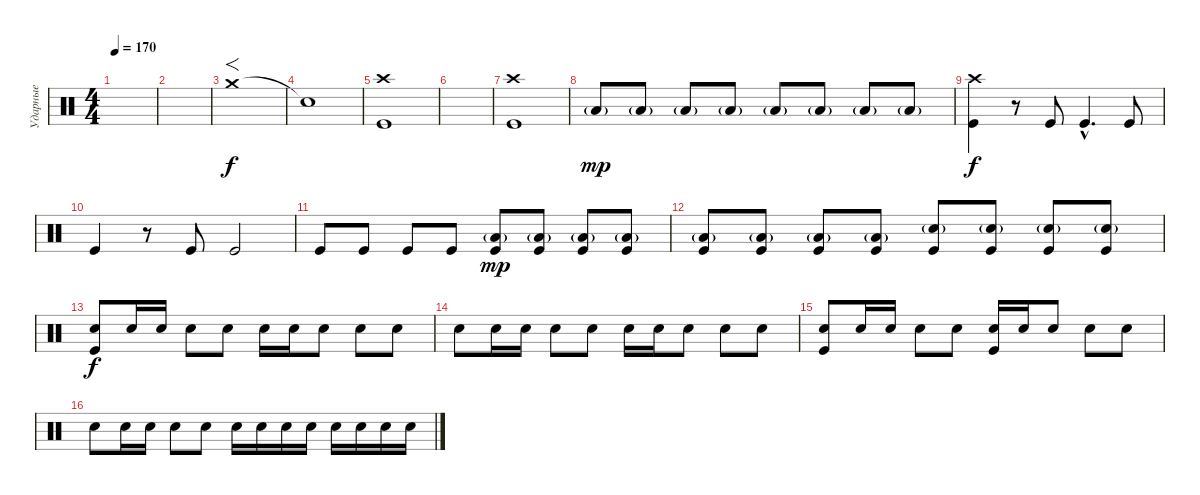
\track ("Ударные" "Ударные") {instrument percussion}
\staff {score}
\articulation defaults
\ts (4 4)
\tempo 170
\clef neutral
\ks c
|
|
"Crash medium (hit)".1{f} |
"Snare (hit)"{t}.1 |
("Crash high (hit)" "Kick (hit)").1 |
|
("Crash high (hit)" "Kick (hit)").1 |
"Low Tom (hit)"{g}.8{dy mp} "Low Tom (hit)"{g}.8 "Low Tom (hit)"{g}.8 "Low Tom (hit)"{g}.8 "Low Tom (hit)"{g}.8 "Low Tom (hit)"{g}.8 "Low Tom (hit)"{g}.8 "Low Tom (hit)"{g}.8 |
("Crash high (hit)" "Kick (hit)").4{dy f} r.8 "Kick (hit)".8 "Kick (hit)"{hac}.4{d} "Kick (hit)".8 |
"Kick (hit)".4 r.8 "Kick (hit)".8 "Kick (hit)".2 |
"Kick (hit)".8 "Kick (hit)".8 "Kick (hit)".8 "Kick (hit)".8 ("Low Tom (hit)"{g} "Kick (hit)").8{dy mp} ("Low Tom (hit)"{g} "Kick (hit)").8 ("Low Tom (hit)"{g} "Kick (hit)").8 ("Low Tom (hit)"{g} "Kick (hit)").8 |
("Low Tom (hit)"{g} "Kick (hit)").8 ("Low Tom (hit)"{g} "Kick (hit)").8 ("Low Tom (hit)"{g} "Kick (hit)").8 ("Low Tom (hit)"{g} "Kick (hit)").8 ("Electric Snare (hit)"{g} "Kick (hit)").8 ("Electric Snare (hit)"{g} "Kick (hit)").8 ("Electric Snare (hit)"{g} "Kick (hit)").8 ("Electric Snare (hit)"{g} "Kick (hit)").8 |
("Electric Snare (hit)" "Kick (hit)").8{dy f} "Electric Snare (hit)".16 "Electric Snare (hit)".16 "Electric Snare (hit)".8 "Electric Snare (hit)".8 "Electric Snare (hit)".16 "Electric Snare (hit)".16 "Electric Snare (hit)".8 "Electric Snare (hit)".8 "Electric Snare (hit)".8 |
"Electric Snare (hit)".8 "Electric Snare (hit)".16 "Electric Snare (hit)".16 "Electric Snare (hit)".8 "Electric Snare (hit)".8 "Electric Snare (hit)".16 "Electric Snare (hit)".16 "Electric Snare (hit)".8 "Electric Snare (hit)".8 "Electric Snare (hit)".8 |
("Kick (hit)" "Electric Snare (hit)").8 "Electric Snare (hit)".16 "Electric Snare (hit)".16 "Electric Snare (hit)".8 "Electric Snare (hit)".8 ("Kick (hit)" "Electric Snare (hit)").16 "Electric Snare (hit)".16 "Electric Snare (hit)".8 "Electric Snare (hit)".8 "Electric Snare (hit)".8 |
"Electric Snare (hit)".8 "Electric Snare (hit)".16 "Electric Snare (hit)".16 "Electric Snare (hit)".8 "Electric Snare (hit)".8 "Electric Snare (hit)".16 "Electric Snare (hit)".16 "Electric Snare (hit)".16 "Electric Snare (hit)".16 "Electric Snare (hit)".16 "Electric Snare (hit)".16 "Electric Snare (hit)".16 "Electric Snare (hit)".16
